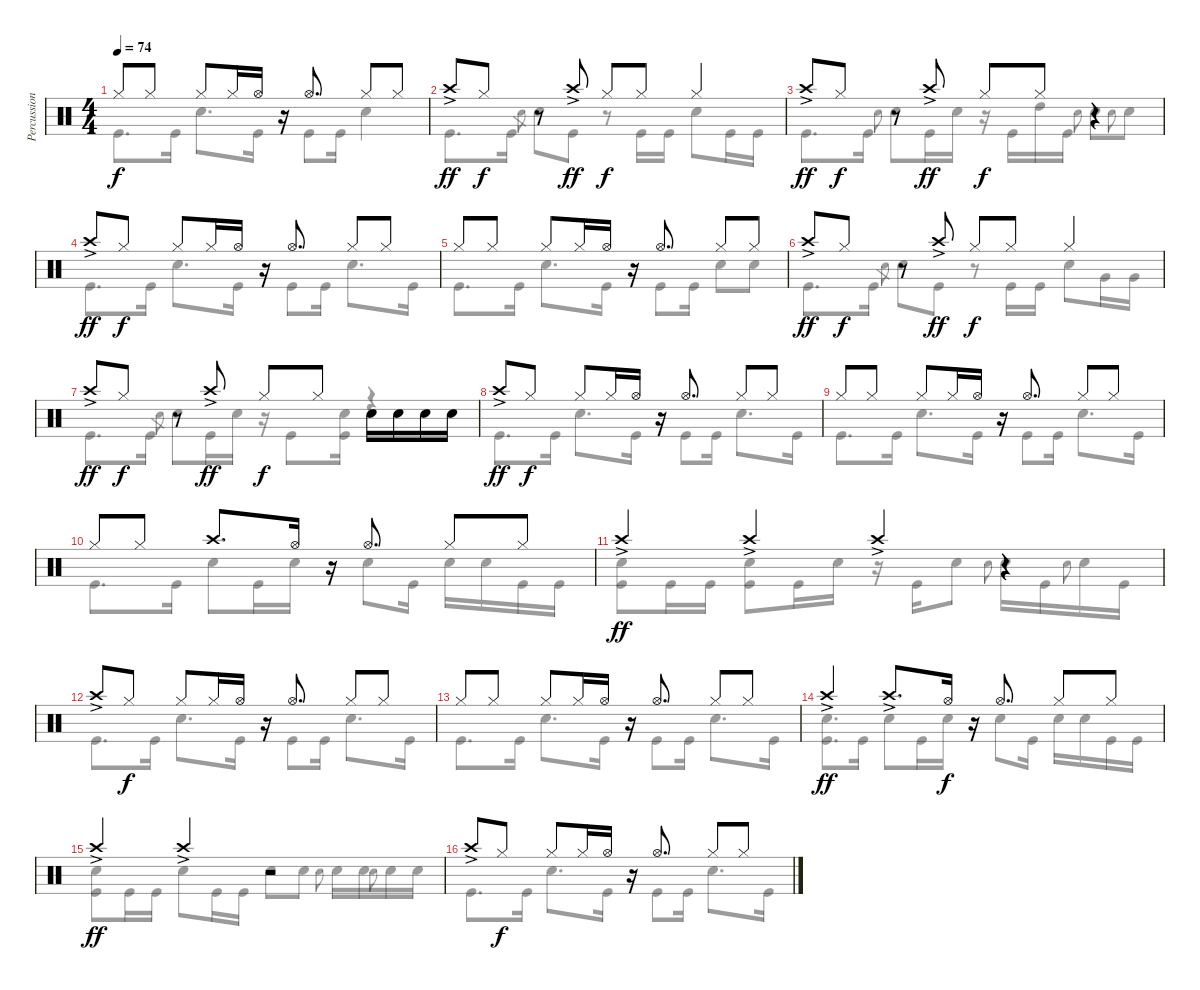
\track ("Percussion" "Percussion") {instrument percussion}
\staff {score}
\articulation defaults
\voice
\ts (4 4)
\tempo 74
\clef neutral
\ks c "Hi-Hat (closed)".8{dy f beam Up} "Hi-Hat (closed)".8{beam Up} "Hi-Hat (closed)".8{beam Up} "Hi-Hat (closed)".16{beam Up} "Hi-Hat (open)".16{beam Up}
r.16 "Hi-Hat (open)".8{d beam Up beam split} "Hi-Hat (closed)".8{beam Up beam merge} "Hi-Hat (closed)".8{beam Up} |
"Crash high (hit)"{ac}.8{dy ff beam Up} "Hi-Hat (closed)".8{dy f beam Up} r.8 "Crash high (hit)"{ac}.8{dy ff beam Up} "Hi-Hat (closed)".8{dy f beam Up} "Hi-Hat (closed)".8{beam Up} "Hi-Hat (closed)".4{beam Up} |
"Crash high (hit)"{ac}.8{dy ff beam Up} "Hi-Hat (closed)".8{dy f beam Up} r.8 "Crash high (hit)"{ac}.8{dy ff beam Up} "Hi-Hat (closed)".8{dy f beam Up} "Hi-Hat (closed)".8{beam Up} r.4{beam Up} |
"Crash high (hit)"{ac}.8{dy ff beam Up} "Hi-Hat (closed)".8{dy f beam Up} "Hi-Hat (closed)".8{beam Up} "Hi-Hat (closed)".16{beam Up} "Hi-Hat (open)".16{beam Up} r.16 "Hi-Hat (open)".8{d beam Up beam split} "Hi-Hat (closed)".8{beam Up beam merge} "Hi-Hat (closed)".8{beam Up} |
"Hi-Hat (closed)".8{beam Up} "Hi-Hat (closed)".8{beam Up} "Hi-Hat (closed)".8{beam Up} "Hi-Hat (closed)".16{beam Up} "Hi-Hat (open)".16{beam Up} r.16 "Hi-Hat (open)".8{d beam Up beam split} "Hi-Hat (closed)".8{beam Up beam merge} "Hi-Hat (closed)".8{beam Up} |
"Crash high (hit)"{ac}.8{dy ff beam Up} "Hi-Hat (closed)".8{dy f beam Up} r.8 "Crash high (hit)"{ac}.8{dy ff beam Up} "Hi-Hat (closed)".8{dy f beam Up} "Hi-Hat (closed)".8{beam Up} "Hi-Hat (closed)".4{beam Up} |
"Crash high (hit)"{ac}.8{dy ff beam Up} "Hi-Hat (closed)".8{dy f beam Up} r.8 "Crash high (hit)"{ac}.8{dy ff beam Up} "Hi-Hat (closed)".8{dy f beam Up} "Hi-Hat (closed)".8{beam Up} "Snare (hit) 2".16{volume 16 beam Down} "Snare (hit) 2".16{beam Down} "Snare (hit) 2".16{beam Down} "Snare (hit) 2".16{beam Down} |
"Crash high (hit)"{ac}.8{dy ff beam Up} "Hi-Hat (closed)".8{dy f beam Up} "Hi-Hat (closed)".8{beam Up} "Hi-Hat (closed)".16{beam Up} "Hi-Hat (open)".16{beam Up} r.16 "Hi-Hat (open)".8{d beam Up beam split} "Hi-Hat (closed)".8{beam Up beam merge} "Hi-Hat (closed)".8{beam Up} |
"Hi-Hat (closed)".8{beam Up} "Hi-Hat (closed)".8{beam Up} "Hi-Hat (closed)".8{beam Up} "Hi-Hat (closed)".16{beam Up} "Hi-Hat (open)".16{beam Up} r.16 "Hi-Hat (open)".8{d beam Up beam split} "Hi-Hat (closed)".8{beam Up beam merge} "Hi-Hat (closed)".8{beam Up} |
"Hi-Hat (closed)".8{beam Up} "Hi-Hat (closed)".8{beam Up} "Crash high (hit)".8{d beam Up} "Hi-Hat (open)".16{beam Up} r.16 "Hi-Hat (open)".8{d beam Up beam split} "Hi-Hat (closed)".8{beam Up beam merge} "Hi-Hat (closed)".8{beam Up} |
"Crash high (hit)"{ac}.4{dy ff beam Up} "Crash high (hit)"{ac}.4{beam Up} "Crash high (hit)"{ac}.4{beam Up} r.4 |
"Crash high (hit)"{ac}.8{beam Up} "Hi-Hat (closed)".8{dy f beam Up} "Hi-Hat (closed)".8{beam Up} "Hi-Hat (closed)".16{beam Up} "Hi-Hat (open)".16{beam Up} r.16 "Hi-Hat (open)".8{d beam Up beam split} "Hi-Hat (closed)".8{beam Up beam merge} "Hi-Hat (closed)".8{beam Up} |
"Hi-Hat (closed)".8{beam Up} "Hi-Hat (closed)".8{beam Up} "Hi-Hat (closed)".8{beam Up} "Hi-Hat (closed)".16{beam Up} "Hi-Hat (open)".16{beam Up} r.16 "Hi-Hat (open)".8{d beam Up beam split} "Hi-Hat (closed)".8{beam Up beam merge} "Hi-Hat (closed)".8{beam Up} |
"Crash high (hit)"{ac}.4{dy ff beam Up} "Crash high (hit)"{ac}.8{d beam Up} "Hi-Hat (open)".16{dy f beam Up} r.16 "Hi-Hat (open)".8{d beam Up beam split} "Hi-Hat (closed)".8{beam Up beam merge} "Hi-Hat (closed)".8{beam Up} |
"Crash high (hit)"{ac}.4{dy ff beam Up} "Crash high (hit)"{ac}.4{beam Up} r.2 |
"Crash high (hit)"{ac}.8{beam Up} "Hi-Hat (closed)".8{dy f beam Up} "Hi-Hat (closed)".8{beam Up} "Hi-Hat (closed)".16{beam Up} "Hi-Hat (open)".16{beam Up} r.16 "Hi-Hat (open)".8{d beam Up beam split} "Hi-Hat (closed)".8{beam Up beam merge} "Hi-Hat (closed)".8{beam Up}
\voice
\clef neutral
\ottava regular
\simile none
\ks c "Kick (hit)".8{d dy f} "Kick (hit)".16 "Snare (hit) 2".8{d} "Kick (hit)".16
r.16 "Kick (hit)".8 "Kick (hit)".16 "Snare (hit) 2".4 |
"Kick (hit)".8{d} "Kick (hit)".16 "Snare (hit) 2"{h}.8{gr} "Snare (hit) 2".8 "Kick (hit)".8 r.8 "Kick (hit)".16 "Kick (hit)".16 "Snare (hit) 2".8 "Kick (hit)".16 "Kick (hit)".16 |
"Kick (hit)".8{d} "Kick (hit)".16 "Snare (hit) 2"{h}.8{gr onbeat} "Snare (hit) 2".8 "Kick (hit)".16 "Snare (hit) 2".16 r.16 "Kick (hit)".16 "High Tom (hit)".16 "Kick (hit)".16 "Snare (hit) 2"{h}.8{gr onbeat} "Snare (hit) 2".8 "Snare (hit) 2"{h}.8{gr onbeat} "Snare (hit) 2".8 |
"Kick (hit)".8{d} "Kick (hit)".16 "Snare (hit) 2".8{d} "Kick (hit)".16 r.16 "Kick (hit)".8 "Kick (hit)".16 "Snare (hit) 2".8{d} "Kick (hit)".16 |
"Kick (hit)".8{d} "Kick (hit)".16 "Snare (hit) 2".8{d} "Kick (hit)".16 r.16 "Kick (hit)".8 "Kick (hit)".16 "Snare (hit) 2".8 "Snare (hit) 2".8 |
"Kick (hit)".8{d} "Kick (hit)".16 "Snare (hit) 2"{h}.8{gr} "Snare (hit) 2".8 "Kick (hit)".8 r.8 "Kick (hit)".16 "Kick (hit)".16 "Snare (hit) 2".8 "Very Low Tom (hit)".16 "Very Low Tom (hit)".16 |
"Kick (hit)".8{d} "Kick (hit)".16 "Snare (hit) 2"{h}.8{gr} "Snare (hit) 2".8 "Kick (hit)".16 "Snare (hit) 2".16 r.16 "Kick (hit)".8 ("Snare (hit) 2" "Kick (hit)").16 r.4 |
"Kick (hit)".8{d} "Kick (hit)".16 "Snare (hit) 2".8{d} "Kick (hit)".16 r.16 "Kick (hit)".8 "Kick (hit)".16 "Snare (hit) 2".8{d} "Kick (hit)".16 |
"Kick (hit)".8{d} "Kick (hit)".16 "Snare (hit) 2".8{d} "Kick (hit)".16 r.16 "Kick (hit)".8 "Kick (hit)".16 "Snare (hit) 2".8{d} "Kick (hit)".16 |
"Kick (hit)".8{d} "Kick (hit)".16 "Snare (hit) 2".8 "Kick (hit)".16 "Snare (hit) 2".16 r.16 "Snare (hit) 2".8 "Kick (hit)".16 "Snare (hit) 2".16 "Snare (hit) 2".16 "Kick (hit)".16 "Kick (hit)".16 |
("Snare (hit) 2" "Kick (hit)").8 "Kick (hit)".16 "Kick (hit)".16 ("Snare (hit) 2" "Kick (hit)").8 "Kick (hit)".16 "Snare (hit) 2".16 r.16 "Kick (hit)".16 "Snare (hit) 2".8 "Snare (hit) 2"{h}.8{gr onbeat} "Snare (hit) 2".16 "Kick (hit)".16 "Snare (hit) 2"{h}.8{gr onbeat} "Snare (hit) 2".16 "Kick (hit)".16 |
"Kick (hit)".8{d} "Kick (hit)".16 "Snare (hit) 2".8{d} "Kick (hit)".16 r.16 "Kick (hit)".8 "Kick (hit)".16 "Snare (hit) 2".8{d} "Kick (hit)".16 |
"Kick (hit)".8{d} "Kick (hit)".16 "Snare (hit) 2".8{d} "Kick (hit)".16 r.16 "Kick (hit)".8 "Kick (hit)".16 "Snare (hit) 2".8{d} "Kick (hit)".16 |
("Snare (hit) 2" "Kick (hit)").8{d} "Kick (hit)".16 "Snare (hit) 2".8 "Kick (hit)".16 "Snare (hit) 2".16 r.16 "Snare (hit) 2".8 "Kick (hit)".16 "Snare (hit) 2".16 "Snare (hit) 2".16 "Kick (hit)".16 "Kick (hit)".16 |
("Snare (hit) 2" "Kick (hit)").8 "Kick (hit)".16 "Kick (hit)".16 "Snare (hit) 2".8 "Kick (hit)".16 "Kick (hit)".16 "Snare (hit) 2".8 "Snare (hit) 2".8 "Snare (hit) 2"{h}.8{gr onbeat} "Snare (hit) 2".16 "Snare (hit) 2".16 "Snare (hit) 2"{h}.8{gr onbeat} "Snare (hit) 2".16 "Snare (hit) 2".16 |
"Kick (hit)".8{d} "Kick (hit)".16 "Snare (hit) 2".8{d} "Kick (hit)".16 r.16 "Kick (hit)".8 "Kick (hit)".16 "Snare (hit) 2".8{d} "Kick (hit)".16
